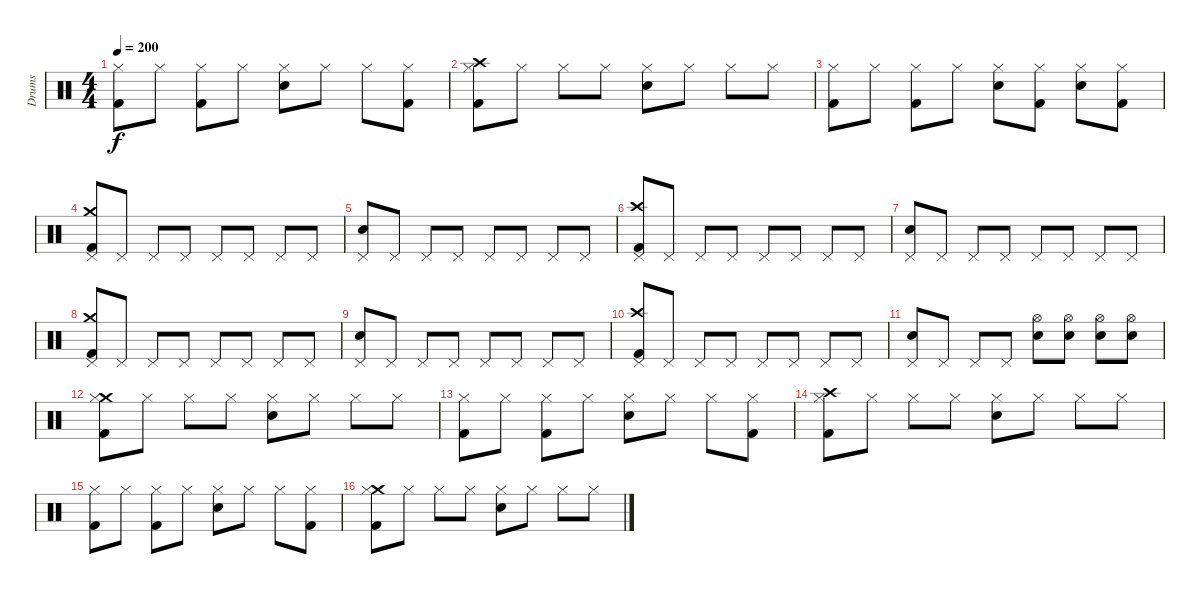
\track ("Drums" "Drums") {instrument percussion}
\staff {score}
\articulation defaults
\ts (4 4)
\tempo 200
\clef neutral
\ks c
("Hi-Hat (closed)" "Kick (hit) 2").8{dy f} "Hi-Hat (closed)".8 ("Hi-Hat (closed)" "Kick (hit) 2").8 "Hi-Hat (closed)".8 ("Hi-Hat (closed)" "Electric Snare (hit)").8 "Hi-Hat (closed)".8 "Hi-Hat (closed)".8 ("Hi-Hat (closed)" "Kick (hit) 2").8 |
("Crash high (hit)" "Hi-Hat (closed)" "Kick (hit) 2").8 "Hi-Hat (closed)".8 "Hi-Hat (closed)".8 "Hi-Hat (closed)".8 ("Hi-Hat (closed)" "Electric Snare (hit)").8 "Hi-Hat (closed)".8 "Hi-Hat (closed)".8 "Hi-Hat (closed)".8 |
("Hi-Hat (closed)" "Kick (hit) 2").8 "Hi-Hat (closed)".8 ("Hi-Hat (closed)" "Kick (hit) 2").8 "Hi-Hat (closed)".8 ("Hi-Hat (closed)" "Electric Snare (hit)").8 ("Hi-Hat (closed)" "Kick (hit) 2").8 ("Hi-Hat (closed)" "Electric Snare (hit)").8 ("Hi-Hat (closed)" "Kick (hit) 2").8 |
("Crash medium (hit)" "Pedal Hi-Hat (hit)" "Kick (hit) 2").8 "Pedal Hi-Hat (hit)".8 "Pedal Hi-Hat (hit)".8 "Pedal Hi-Hat (hit)".8 "Pedal Hi-Hat (hit)".8 "Pedal Hi-Hat (hit)".8 "Pedal Hi-Hat (hit)".8 "Pedal Hi-Hat (hit)".8 |
("Pedal Hi-Hat (hit)" "Electric Snare (hit)").8 "Pedal Hi-Hat (hit)".8 "Pedal Hi-Hat (hit)".8 "Pedal Hi-Hat (hit)".8 "Pedal Hi-Hat (hit)".8 "Pedal Hi-Hat (hit)".8 "Pedal Hi-Hat (hit)".8 "Pedal Hi-Hat (hit)".8 |
("Crash high (hit)" "Pedal Hi-Hat (hit)" "Kick (hit) 2").8 "Pedal Hi-Hat (hit)".8 "Pedal Hi-Hat (hit)".8 "Pedal Hi-Hat (hit)".8 "Pedal Hi-Hat (hit)".8 "Pedal Hi-Hat (hit)".8 "Pedal Hi-Hat (hit)".8 "Pedal Hi-Hat (hit)".8 |
("Pedal Hi-Hat (hit)" "Electric Snare (hit)").8 "Pedal Hi-Hat (hit)".8 "Pedal Hi-Hat (hit)".8 "Pedal Hi-Hat (hit)".8 "Pedal Hi-Hat (hit)".8 "Pedal Hi-Hat (hit)".8 "Pedal Hi-Hat (hit)".8 "Pedal Hi-Hat (hit)".8 |
("Crash medium (hit)" "Pedal Hi-Hat (hit)" "Kick (hit) 2").8 "Pedal Hi-Hat (hit)".8 "Pedal Hi-Hat (hit)".8 "Pedal Hi-Hat (hit)".8 "Pedal Hi-Hat (hit)".8 "Pedal Hi-Hat (hit)".8 "Pedal Hi-Hat (hit)".8 "Pedal Hi-Hat (hit)".8 |
("Pedal Hi-Hat (hit)" "Electric Snare (hit)").8 "Pedal Hi-Hat (hit)".8 "Pedal Hi-Hat (hit)".8 "Pedal Hi-Hat (hit)".8 "Pedal Hi-Hat (hit)".8 "Pedal Hi-Hat (hit)".8 "Pedal Hi-Hat (hit)".8 "Pedal Hi-Hat (hit)".8 |
("Crash high (hit)" "Pedal Hi-Hat (hit)" "Kick (hit) 2").8 "Pedal Hi-Hat (hit)".8 "Pedal Hi-Hat (hit)".8 "Pedal Hi-Hat (hit)".8 "Pedal Hi-Hat (hit)".8 "Pedal Hi-Hat (hit)".8 "Pedal Hi-Hat (hit)".8 "Pedal Hi-Hat (hit)".8 |
("Pedal Hi-Hat (hit)" "Electric Snare (hit)").8 "Pedal Hi-Hat (hit)".8 "Pedal Hi-Hat (hit)".8 "Pedal Hi-Hat (hit)".8 ("Hi-Hat (open)" "Electric Snare (hit)").8 ("Hi-Hat (open)" "Electric Snare (hit)").8 ("Hi-Hat (open)" "Electric Snare (hit)").8 ("Hi-Hat (open)" "Electric Snare (hit)").8 |
("Crash medium (hit)" "Hi-Hat (closed)" "Kick (hit) 2").8 "Hi-Hat (closed)".8 "Hi-Hat (closed)".8 "Hi-Hat (closed)".8 ("Hi-Hat (closed)" "Electric Snare (hit)").8 "Hi-Hat (closed)".8 "Hi-Hat (closed)".8 "Hi-Hat (closed)".8 |
("Hi-Hat (closed)" "Kick (hit) 2").8 "Hi-Hat (closed)".8 ("Hi-Hat (closed)" "Kick (hit) 2").8 "Hi-Hat (closed)".8 ("Hi-Hat (closed)" "Electric Snare (hit)").8 "Hi-Hat (closed)".8 "Hi-Hat (closed)".8 ("Hi-Hat (closed)" "Kick (hit) 2").8 |
("Crash high (hit)" "Hi-Hat (closed)" "Kick (hit) 2").8 "Hi-Hat (closed)".8 "Hi-Hat (closed)".8 "Hi-Hat (closed)".8 ("Hi-Hat (closed)" "Electric Snare (hit)").8 "Hi-Hat (closed)".8 "Hi-Hat (closed)".8 "Hi-Hat (closed)".8 |
("Hi-Hat (closed)" "Kick (hit) 2").8 "Hi-Hat (closed)".8 ("Hi-Hat (closed)" "Kick (hit) 2").8 "Hi-Hat (closed)".8 ("Hi-Hat (closed)" "Electric Snare (hit)").8 "Hi-Hat (closed)".8 "Hi-Hat (closed)".8 ("Hi-Hat (closed)" "Kick (hit) 2").8 |
("Crash medium (hit)" "Hi-Hat (closed)" "Kick (hit) 2").8 "Hi-Hat (closed)".8 "Hi-Hat (closed)".8 "Hi-Hat (closed)".8 ("Hi-Hat (closed)" "Electric Snare (hit)").8 "Hi-Hat (closed)".8 "Hi-Hat (closed)".8 "Hi-Hat (closed)".8
